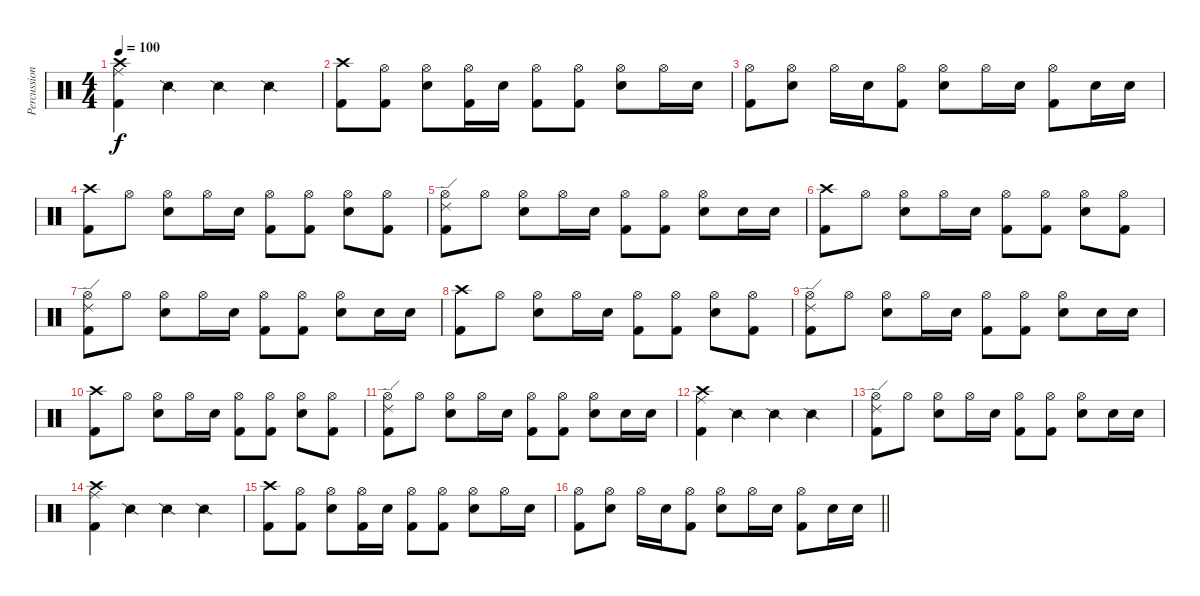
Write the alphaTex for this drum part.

\track ("Percussion" "Percussion") {instrument percussion}
\staff {score}
\articulation defaults
\ts (4 4)
\tempo 100
\clef neutral
\ks c
("Crash high (hit)" "Kick (hit) 2" "Ride (middle)").4{dy f} "Snare (side stick) 2".4 "Snare (side stick) 2".4 "Snare (side stick) 2".4 |
("Crash high (hit)" "Kick (hit) 2").8 ("Hi-Hat (open)" "Kick (hit) 2").8 ("Hi-Hat (open)" "Snare (hit) 2").8 ("Hi-Hat (open)" "Kick (hit) 2").16 "Snare (hit) 2".16 ("Hi-Hat (open)" "Kick (hit) 2").8 ("Hi-Hat (open)" "Kick (hit) 2").8 ("Hi-Hat (open)" "Snare (hit) 2").8 "Hi-Hat (open)".16 "Snare (hit) 2".16 |
("Hi-Hat (open)" "Kick (hit) 2").8 ("Hi-Hat (open)" "Snare (hit) 2").8 "Hi-Hat (open)".16 "Snare (hit) 2".16 ("Hi-Hat (open)" "Kick (hit) 2").8 ("Hi-Hat (open)" "Snare (hit) 2").8 "Hi-Hat (open)".16 "Snare (hit) 2".16 ("Hi-Hat (open)" "Kick (hit) 2").8 "Snare (hit) 2".16 "Snare (hit) 2".16 |
("Crash high (hit)" "Kick (hit) 2").8 "Hi-Hat (open)".8 ("Hi-Hat (open)" "Snare (hit) 2").8 "Hi-Hat (open)".16 "Snare (hit) 2".16 ("Hi-Hat (open)" "Kick (hit) 2").8 ("Hi-Hat (open)" "Kick (hit) 2").8 ("Hi-Hat (open)" "Snare (hit) 2").8 ("Hi-Hat (open)" "Kick (hit) 2").8 |
("Hi-Hat (open)" "Kick (hit) 2" "Ride (edge) 2").8 "Hi-Hat (open)".8 ("Hi-Hat (open)" "Snare (hit) 2").8 "Hi-Hat (open)".16 "Snare (hit) 2".16 ("Hi-Hat (open)" "Kick (hit) 2").8 ("Hi-Hat (open)" "Kick (hit) 2").8 ("Hi-Hat (open)" "Snare (hit) 2").8 "Snare (hit) 2".16 "Snare (hit) 2".16 |
("Crash high (hit)" "Kick (hit) 2").8 "Hi-Hat (open)".8 ("Hi-Hat (open)" "Snare (hit) 2").8 "Hi-Hat (open)".16 "Snare (hit) 2".16 ("Hi-Hat (open)" "Kick (hit) 2").8 ("Hi-Hat (open)" "Kick (hit) 2").8 ("Hi-Hat (open)" "Snare (hit) 2").8 ("Hi-Hat (open)" "Kick (hit) 2").8 |
("Hi-Hat (open)" "Kick (hit) 2" "Ride (edge) 2").8 "Hi-Hat (open)".8 ("Hi-Hat (open)" "Snare (hit) 2").8 "Hi-Hat (open)".16 "Snare (hit) 2".16 ("Hi-Hat (open)" "Kick (hit) 2").8 ("Hi-Hat (open)" "Kick (hit) 2").8 ("Hi-Hat (open)" "Snare (hit) 2").8 "Snare (hit) 2".16 "Snare (hit) 2".16 |
("Crash high (hit)" "Kick (hit) 2").8 "Hi-Hat (open)".8 ("Hi-Hat (open)" "Snare (hit) 2").8 "Hi-Hat (open)".16 "Snare (hit) 2".16 ("Hi-Hat (open)" "Kick (hit) 2").8 ("Hi-Hat (open)" "Kick (hit) 2").8 ("Hi-Hat (open)" "Snare (hit) 2").8 ("Hi-Hat (open)" "Kick (hit) 2").8 |
("Hi-Hat (open)" "Kick (hit) 2" "Ride (edge) 2").8 "Hi-Hat (open)".8 ("Hi-Hat (open)" "Snare (hit) 2").8 "Hi-Hat (open)".16 "Snare (hit) 2".16 ("Hi-Hat (open)" "Kick (hit) 2").8 ("Hi-Hat (open)" "Kick (hit) 2").8 ("Hi-Hat (open)" "Snare (hit) 2").8 "Snare (hit) 2".16 "Snare (hit) 2".16 |
("Crash high (hit)" "Kick (hit) 2").8 "Hi-Hat (open)".8 ("Hi-Hat (open)" "Snare (hit) 2").8 "Hi-Hat (open)".16 "Snare (hit) 2".16 ("Hi-Hat (open)" "Kick (hit) 2").8 ("Hi-Hat (open)" "Kick (hit) 2").8 ("Hi-Hat (open)" "Snare (hit) 2").8 ("Hi-Hat (open)" "Kick (hit) 2").8 |
("Hi-Hat (open)" "Kick (hit) 2" "Ride (edge) 2").8 "Hi-Hat (open)".8 ("Hi-Hat (open)" "Snare (hit) 2").8 "Hi-Hat (open)".16 "Snare (hit) 2".16 ("Hi-Hat (open)" "Kick (hit) 2").8 ("Hi-Hat (open)" "Kick (hit) 2").8 ("Hi-Hat (open)" "Snare (hit) 2").8 "Snare (hit) 2".16 "Snare (hit) 2".16 |
("Crash high (hit)" "Kick (hit) 2" "Ride (middle)").4 "Snare (side stick) 2".4 "Snare (side stick) 2".4 "Snare (side stick) 2".4 |
("Hi-Hat (open)" "Kick (hit) 2" "Ride (edge) 2").8 "Hi-Hat (open)".8 ("Hi-Hat (open)" "Snare (hit) 2").8 "Hi-Hat (open)".16 "Snare (hit) 2".16 ("Hi-Hat (open)" "Kick (hit) 2").8 ("Hi-Hat (open)" "Kick (hit) 2").8 ("Hi-Hat (open)" "Snare (hit) 2").8 "Snare (hit) 2".16 "Snare (hit) 2".16 |
("Crash high (hit)" "Kick (hit) 2" "Ride (middle)").4 "Snare (side stick) 2".4 "Snare (side stick) 2".4 "Snare (side stick) 2".4 |
("Crash high (hit)" "Kick (hit) 2").8 ("Hi-Hat (open)" "Kick (hit) 2").8 ("Hi-Hat (open)" "Snare (hit) 2").8 ("Hi-Hat (open)" "Kick (hit) 2").16 "Snare (hit) 2".16 ("Hi-Hat (open)" "Kick (hit) 2").8 ("Hi-Hat (open)" "Kick (hit) 2").8 ("Hi-Hat (open)" "Snare (hit) 2").8 "Hi-Hat (open)".16 "Snare (hit) 2".16 |
\barLineRight lightlight
("Hi-Hat (open)" "Kick (hit) 2").8 ("Hi-Hat (open)" "Snare (hit) 2").8 "Hi-Hat (open)".16 "Snare (hit) 2".16 ("Hi-Hat (open)" "Kick (hit) 2").8 ("Hi-Hat (open)" "Snare (hit) 2").8 "Hi-Hat (open)".16 "Snare (hit) 2".16 ("Hi-Hat (open)" "Kick (hit) 2").8 "Snare (hit) 2".16 "Snare (hit) 2".16
